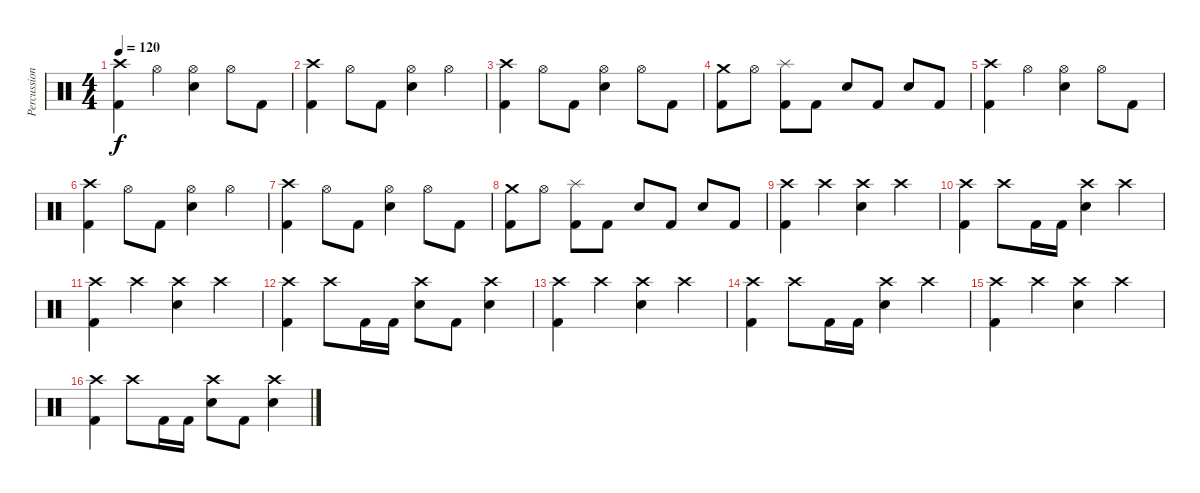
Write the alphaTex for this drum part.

\track ("Percussions" "Percussion") {instrument percussion}
\staff {score}
\articulation defaults
\ts (4 4)
\tempo 120
\clef neutral
\ks c
("Crash high (hit)" "Kick (hit) 2").4{dy f} "Hi-Hat (open)".4 ("Hi-Hat (open)" "Electric Snare (hit)").4 "Hi-Hat (open)".8 "Kick (hit) 2".8 |
("Crash high (hit)" "Kick (hit) 2").4 "Hi-Hat (open)".8 "Kick (hit) 2".8 ("Hi-Hat (open)" "Electric Snare (hit)").4 "Hi-Hat (open)".4 |
("Crash high (hit)" "Kick (hit) 2").4 "Hi-Hat (open)".8 "Kick (hit) 2".8 ("Hi-Hat (open)" "Electric Snare (hit)").4 "Hi-Hat (open)".8 "Kick (hit) 2".8 |
("Crash medium (hit)" "Kick (hit) 2").8 "Hi-Hat (open)".8 ("Splash (hit)" "Kick (hit) 2").8 "Kick (hit) 2".8 "Electric Snare (hit)".8 "Kick (hit) 2".8 "Electric Snare (hit)".8 "Kick (hit) 2".8 |
("Crash high (hit)" "Kick (hit) 2").4 "Hi-Hat (open)".4 ("Hi-Hat (open)" "Electric Snare (hit)").4 "Hi-Hat (open)".8 "Kick (hit) 2".8 |
("Crash high (hit)" "Kick (hit) 2").4 "Hi-Hat (open)".8 "Kick (hit) 2".8 ("Hi-Hat (open)" "Electric Snare (hit)").4 "Hi-Hat (open)".4 |
("Crash high (hit)" "Kick (hit) 2").4 "Hi-Hat (open)".8 "Kick (hit) 2".8 ("Hi-Hat (open)" "Electric Snare (hit)").4 "Hi-Hat (open)".8 "Kick (hit) 2".8 |
("Crash medium (hit)" "Kick (hit) 2").8 "Hi-Hat (open)".8 ("Splash (hit)" "Kick (hit) 2").8 "Kick (hit) 2".8 "Electric Snare (hit)".8 "Kick (hit) 2".8 "Electric Snare (hit)".8 "Kick (hit) 2".8 |
("Crash high (hit)" "Kick (hit) 2").4 "Crash high (hit)".4 ("Crash high (hit)" "Electric Snare (hit)").4 "Crash high (hit)".4 |
("Crash high (hit)" "Kick (hit) 2").4 "Crash high (hit)".8 "Kick (hit) 2".16 "Kick (hit) 2".16 ("Crash high (hit)" "Electric Snare (hit)").4 "Crash high (hit)".4 |
("Crash high (hit)" "Kick (hit) 2").4 "Crash high (hit)".4 ("Crash high (hit)" "Electric Snare (hit)").4 "Crash high (hit)".4 |
("Crash high (hit)" "Kick (hit) 2").4 "Crash high (hit)".8 "Kick (hit) 2".16 "Kick (hit) 2".16 ("Crash high (hit)" "Electric Snare (hit)").8 "Kick (hit) 2".8 ("Crash high (hit)" "Electric Snare (hit)").4 |
("Crash high (hit)" "Kick (hit) 2").4 "Crash high (hit)".4 ("Crash high (hit)" "Electric Snare (hit)").4 "Crash high (hit)".4 |
("Crash high (hit)" "Kick (hit) 2").4 "Crash high (hit)".8 "Kick (hit) 2".16 "Kick (hit) 2".16 ("Crash high (hit)" "Electric Snare (hit)").4 "Crash high (hit)".4 |
("Crash high (hit)" "Kick (hit) 2").4 "Crash high (hit)".4 ("Crash high (hit)" "Electric Snare (hit)").4 "Crash high (hit)".4 |
("Crash high (hit)" "Kick (hit) 2").4 "Crash high (hit)".8 "Kick (hit) 2".16 "Kick (hit) 2".16 ("Crash high (hit)" "Electric Snare (hit)").8 "Kick (hit) 2".8 ("Crash high (hit)" "Electric Snare (hit)").4
